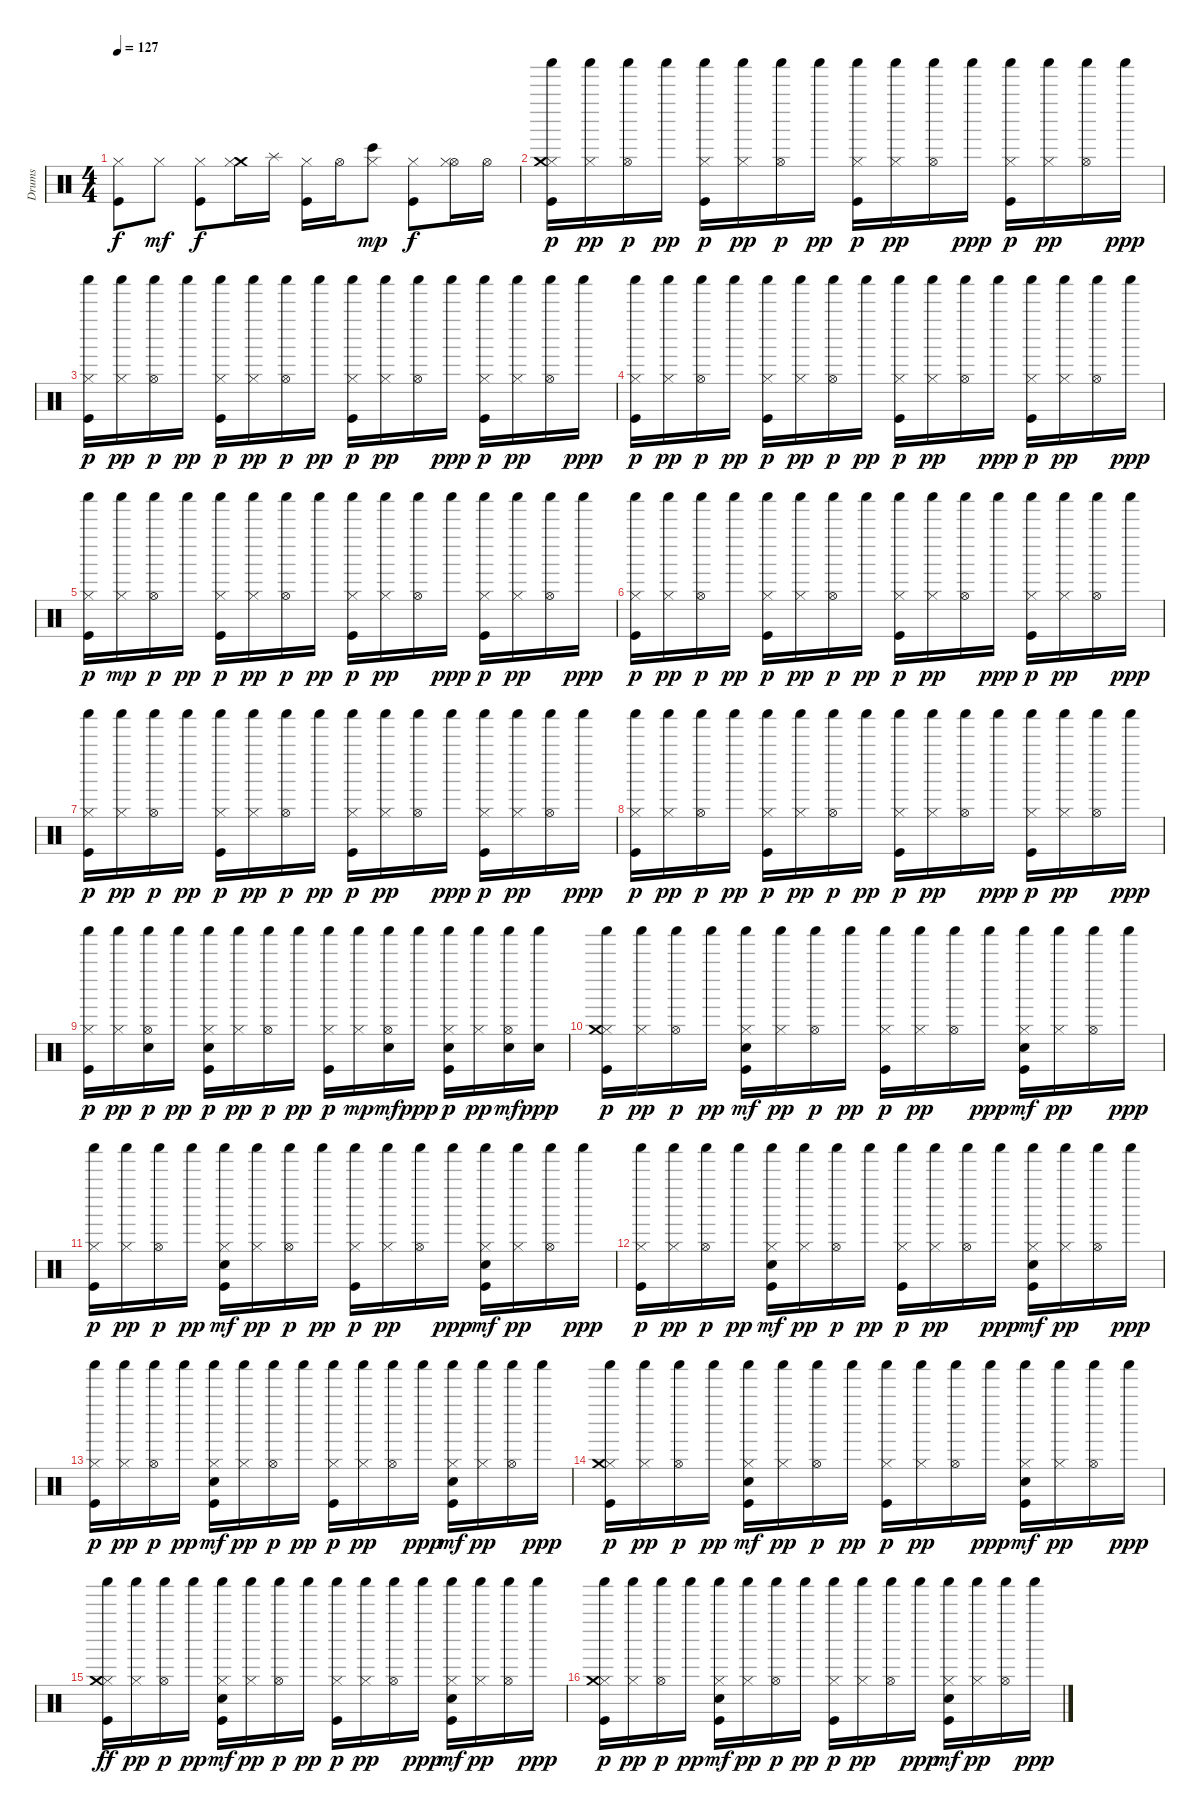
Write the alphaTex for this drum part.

\track ("Drums" "Drums") {instrument percussion}
\staff {score}
\articulation defaults
\ts (4 4)
\tempo 127
\clef neutral
\ks c
("Kick (hit)" "Hi-Hat (closed)").8{dy f} "Hi-Hat (closed)".8{dy mf} ("Kick (hit)" "Hi-Hat (closed)").8{dy f} ("Crash medium (hit)" "Hi-Hat (closed)").16 "Splash (hit)".16 ("Hi-Hat (closed)" "Kick (hit)").16 "Hi-Hat (open)".16 ("Bongo High (hit)" "Hi-Hat (closed)").8{dy mp} ("Kick (hit)" "Hi-Hat (closed)").8{dy f} ("Hi-Hat (open)" "Hi-Hat (closed)").16 "Hi-Hat (open)".16 |
("Kick (hit)" "Hi-Hat (closed)" "Crash medium (hit)" "Shaker (hit)").16{dy p} ("Hi-Hat (closed)" "Shaker (hit)").16{dy pp} ("Hi-Hat (open)" "Shaker (hit)").16{dy p} "Shaker (hit)".16{dy pp} ("Kick (hit)" "Hi-Hat (closed)" "Shaker (hit)").16{dy p} ("Hi-Hat (closed)" "Shaker (hit)").16{dy pp} ("Hi-Hat (open)" "Shaker (hit)").16{dy p} "Shaker (hit)".16{dy pp} ("Kick (hit)" "Hi-Hat (closed)" "Shaker (hit)").16{dy p} ("Hi-Hat (closed)" "Shaker (hit)").16{dy pp} ("Hi-Hat (open)" "Shaker (hit)").16 "Shaker (hit)".16{dy ppp} ("Kick (hit)" "Hi-Hat (closed)" "Shaker (hit)").16{dy p} ("Hi-Hat (closed)" "Shaker (hit)").16{dy pp} ("Hi-Hat (open)" "Shaker (hit)").16 "Shaker (hit)".16{dy ppp} |
("Kick (hit)" "Hi-Hat (closed)" "Shaker (hit)").16{dy p} ("Hi-Hat (closed)" "Shaker (hit)").16{dy pp} ("Hi-Hat (open)" "Shaker (hit)").16{dy p} "Shaker (hit)".16{dy pp} ("Kick (hit)" "Hi-Hat (closed)" "Shaker (hit)").16{dy p} ("Hi-Hat (closed)" "Shaker (hit)").16{dy pp} ("Hi-Hat (open)" "Shaker (hit)").16{dy p} "Shaker (hit)".16{dy pp} ("Kick (hit)" "Hi-Hat (closed)" "Shaker (hit)").16{dy p} ("Hi-Hat (closed)" "Shaker (hit)").16{dy pp} ("Hi-Hat (open)" "Shaker (hit)").16 "Shaker (hit)".16{dy ppp} ("Kick (hit)" "Hi-Hat (closed)" "Shaker (hit)").16{dy p} ("Hi-Hat (closed)" "Shaker (hit)").16{dy pp} ("Hi-Hat (open)" "Shaker (hit)").16 "Shaker (hit)".16{dy ppp} |
("Kick (hit)" "Hi-Hat (closed)" "Shaker (hit)").16{dy p} ("Hi-Hat (closed)" "Shaker (hit)").16{dy pp} ("Hi-Hat (open)" "Shaker (hit)").16{dy p} "Shaker (hit)".16{dy pp} ("Kick (hit)" "Hi-Hat (closed)" "Shaker (hit)").16{dy p} ("Hi-Hat (closed)" "Shaker (hit)").16{dy pp} ("Hi-Hat (open)" "Shaker (hit)").16{dy p} "Shaker (hit)".16{dy pp} ("Kick (hit)" "Hi-Hat (closed)" "Shaker (hit)").16{dy p} ("Hi-Hat (closed)" "Shaker (hit)").16{dy pp} ("Hi-Hat (open)" "Shaker (hit)").16 "Shaker (hit)".16{dy ppp} ("Kick (hit)" "Hi-Hat (closed)" "Shaker (hit)").16{dy p} ("Hi-Hat (closed)" "Shaker (hit)").16{dy pp} ("Hi-Hat (open)" "Shaker (hit)").16 "Shaker (hit)".16{dy ppp} |
("Kick (hit)" "Hi-Hat (closed)" "Shaker (hit)").16{dy p} ("Shaker (hit)" "Hi-Hat (closed)").16{dy mp} ("Hi-Hat (open)" "Shaker (hit)").16{dy p} "Shaker (hit)".16{dy pp} ("Kick (hit)" "Hi-Hat (closed)" "Shaker (hit)").16{dy p} ("Hi-Hat (closed)" "Shaker (hit)").16{dy pp} ("Hi-Hat (open)" "Shaker (hit)").16{dy p} "Shaker (hit)".16{dy pp} ("Kick (hit)" "Hi-Hat (closed)" "Shaker (hit)").16{dy p} ("Hi-Hat (closed)" "Shaker (hit)").16{dy pp} ("Hi-Hat (open)" "Shaker (hit)").16 "Shaker (hit)".16{dy ppp} ("Kick (hit)" "Hi-Hat (closed)" "Shaker (hit)").16{dy p} ("Hi-Hat (closed)" "Shaker (hit)").16{dy pp} ("Hi-Hat (open)" "Shaker (hit)").16 "Shaker (hit)".16{dy ppp} |
("Kick (hit)" "Hi-Hat (closed)" "Shaker (hit)").16{dy p} ("Hi-Hat (closed)" "Shaker (hit)").16{dy pp} ("Hi-Hat (open)" "Shaker (hit)").16{dy p} "Shaker (hit)".16{dy pp} ("Kick (hit)" "Hi-Hat (closed)" "Shaker (hit)").16{dy p} ("Hi-Hat (closed)" "Shaker (hit)").16{dy pp} ("Hi-Hat (open)" "Shaker (hit)").16{dy p} "Shaker (hit)".16{dy pp} ("Kick (hit)" "Hi-Hat (closed)" "Shaker (hit)").16{dy p} ("Hi-Hat (closed)" "Shaker (hit)").16{dy pp} ("Hi-Hat (open)" "Shaker (hit)").16 "Shaker (hit)".16{dy ppp} ("Kick (hit)" "Hi-Hat (closed)" "Shaker (hit)").16{dy p} ("Hi-Hat (closed)" "Shaker (hit)").16{dy pp} ("Hi-Hat (open)" "Shaker (hit)").16 "Shaker (hit)".16{dy ppp} |
("Kick (hit)" "Hi-Hat (closed)" "Shaker (hit)").16{dy p} ("Hi-Hat (closed)" "Shaker (hit)").16{dy pp} ("Hi-Hat (open)" "Shaker (hit)").16{dy p} "Shaker (hit)".16{dy pp} ("Kick (hit)" "Hi-Hat (closed)" "Shaker (hit)").16{dy p} ("Hi-Hat (closed)" "Shaker (hit)").16{dy pp} ("Hi-Hat (open)" "Shaker (hit)").16{dy p} "Shaker (hit)".16{dy pp} ("Kick (hit)" "Hi-Hat (closed)" "Shaker (hit)").16{dy p} ("Hi-Hat (closed)" "Shaker (hit)").16{dy pp} ("Hi-Hat (open)" "Shaker (hit)").16 "Shaker (hit)".16{dy ppp} ("Kick (hit)" "Hi-Hat (closed)" "Shaker (hit)").16{dy p} ("Hi-Hat (closed)" "Shaker (hit)").16{dy pp} ("Hi-Hat (open)" "Shaker (hit)").16 "Shaker (hit)".16{dy ppp} |
("Kick (hit)" "Hi-Hat (closed)" "Shaker (hit)").16{dy p} ("Hi-Hat (closed)" "Shaker (hit)").16{dy pp} ("Hi-Hat (open)" "Shaker (hit)").16{dy p} "Shaker (hit)".16{dy pp} ("Kick (hit)" "Hi-Hat (closed)" "Shaker (hit)").16{dy p} ("Hi-Hat (closed)" "Shaker (hit)").16{dy pp} ("Hi-Hat (open)" "Shaker (hit)").16{dy p} "Shaker (hit)".16{dy pp} ("Kick (hit)" "Hi-Hat (closed)" "Shaker (hit)").16{dy p} ("Hi-Hat (closed)" "Shaker (hit)").16{dy pp} ("Hi-Hat (open)" "Shaker (hit)").16 "Shaker (hit)".16{dy ppp} ("Kick (hit)" "Hi-Hat (closed)" "Shaker (hit)").16{dy p} ("Hi-Hat (closed)" "Shaker (hit)").16{dy pp} ("Hi-Hat (open)" "Shaker (hit)").16 "Shaker (hit)".16{dy ppp} |
("Kick (hit)" "Hi-Hat (closed)" "Shaker (hit)").16{dy p} ("Hi-Hat (closed)" "Shaker (hit)").16{dy pp} ("Hi-Hat (open)" "Hand Clap (hit)" "Shaker (hit)").16{dy p} "Shaker (hit)".16{dy pp} ("Shaker (hit)" "Kick (hit)" "Hi-Hat (closed)" "Hand Clap (hit)").16{dy p} ("Hi-Hat (closed)" "Shaker (hit)").16{dy pp} ("Hi-Hat (open)" "Shaker (hit)").16{dy p} "Shaker (hit)".16{dy pp} ("Shaker (hit)" "Kick (hit)" "Hi-Hat (closed)").16{dy p} ("Shaker (hit)" "Hi-Hat (closed)").16{dy mp} ("Shaker (hit)" "Hand Clap (hit)" "Hi-Hat (open)").16{dy mf} "Shaker (hit)".16{dy ppp} ("Shaker (hit)" "Hand Clap (hit)" "Kick (hit)" "Hi-Hat (closed)").16{dy p} ("Hi-Hat (closed)" "Shaker (hit)").16{dy pp} ("Shaker (hit)" "Hand Clap (hit)" "Hi-Hat (open)").16{dy mf} ("Hand Clap (hit)" "Shaker (hit)").16{dy ppp} |
("Kick (hit)" "Hi-Hat (closed)" "Crash medium (hit)" "Shaker (hit)").16{dy p} ("Hi-Hat (closed)" "Shaker (hit)").16{dy pp} ("Hi-Hat (open)" "Shaker (hit)").16{dy p} "Shaker (hit)".16{dy pp} ("Hi-Hat (closed)" "Shaker (hit)" "Hand Clap (hit)" "Kick (hit)").16{dy mf} ("Hi-Hat (closed)" "Shaker (hit)").16{dy pp} ("Hi-Hat (open)" "Shaker (hit)").16{dy p} "Shaker (hit)".16{dy pp} ("Kick (hit)" "Hi-Hat (closed)" "Shaker (hit)").16{dy p} ("Hi-Hat (closed)" "Shaker (hit)").16{dy pp} ("Hi-Hat (open)" "Shaker (hit)").16 "Shaker (hit)".16{dy ppp} ("Hi-Hat (closed)" "Shaker (hit)" "Hand Clap (hit)" "Kick (hit)").16{dy mf} ("Hi-Hat (closed)" "Shaker (hit)").16{dy pp} ("Hi-Hat (open)" "Shaker (hit)").16 "Shaker (hit)".16{dy ppp} |
("Kick (hit)" "Hi-Hat (closed)" "Shaker (hit)").16{dy p} ("Hi-Hat (closed)" "Shaker (hit)").16{dy pp} ("Hi-Hat (open)" "Shaker (hit)").16{dy p} "Shaker (hit)".16{dy pp} ("Hi-Hat (closed)" "Shaker (hit)" "Hand Clap (hit)" "Kick (hit)").16{dy mf} ("Hi-Hat (closed)" "Shaker (hit)").16{dy pp} ("Hi-Hat (open)" "Shaker (hit)").16{dy p} "Shaker (hit)".16{dy pp} ("Kick (hit)" "Hi-Hat (closed)" "Shaker (hit)").16{dy p} ("Hi-Hat (closed)" "Shaker (hit)").16{dy pp} ("Hi-Hat (open)" "Shaker (hit)").16 "Shaker (hit)".16{dy ppp} ("Hi-Hat (closed)" "Shaker (hit)" "Hand Clap (hit)" "Kick (hit)").16{dy mf} ("Hi-Hat (closed)" "Shaker (hit)").16{dy pp} ("Hi-Hat (open)" "Shaker (hit)").16 "Shaker (hit)".16{dy ppp} |
("Kick (hit)" "Hi-Hat (closed)" "Shaker (hit)").16{dy p} ("Hi-Hat (closed)" "Shaker (hit)").16{dy pp} ("Hi-Hat (open)" "Shaker (hit)").16{dy p} "Shaker (hit)".16{dy pp} ("Hi-Hat (closed)" "Shaker (hit)" "Hand Clap (hit)" "Kick (hit)").16{dy mf} ("Hi-Hat (closed)" "Shaker (hit)").16{dy pp} ("Hi-Hat (open)" "Shaker (hit)").16{dy p} "Shaker (hit)".16{dy pp} ("Kick (hit)" "Hi-Hat (closed)" "Shaker (hit)").16{dy p} ("Hi-Hat (closed)" "Shaker (hit)").16{dy pp} ("Hi-Hat (open)" "Shaker (hit)").16 "Shaker (hit)".16{dy ppp} ("Hi-Hat (closed)" "Shaker (hit)" "Hand Clap (hit)" "Kick (hit)").16{dy mf} ("Hi-Hat (closed)" "Shaker (hit)").16{dy pp} ("Hi-Hat (open)" "Shaker (hit)").16 "Shaker (hit)".16{dy ppp} |
("Kick (hit)" "Hi-Hat (closed)" "Shaker (hit)").16{dy p} ("Hi-Hat (closed)" "Shaker (hit)").16{dy pp} ("Hi-Hat (open)" "Shaker (hit)").16{dy p} "Shaker (hit)".16{dy pp} ("Hi-Hat (closed)" "Shaker (hit)" "Hand Clap (hit)" "Kick (hit)").16{dy mf} ("Hi-Hat (closed)" "Shaker (hit)").16{dy pp} ("Hi-Hat (open)" "Shaker (hit)").16{dy p} "Shaker (hit)".16{dy pp} ("Kick (hit)" "Hi-Hat (closed)" "Shaker (hit)").16{dy p} ("Hi-Hat (closed)" "Shaker (hit)").16{dy pp} ("Hi-Hat (open)" "Shaker (hit)").16 "Shaker (hit)".16{dy ppp} ("Hi-Hat (closed)" "Shaker (hit)" "Hand Clap (hit)" "Kick (hit)").16{dy mf} ("Hi-Hat (closed)" "Shaker (hit)").16{dy pp} ("Hi-Hat (open)" "Shaker (hit)").16 "Shaker (hit)".16{dy ppp} |
("Kick (hit)" "Hi-Hat (closed)" "Crash medium (hit)" "Shaker (hit)").16{dy p} ("Hi-Hat (closed)" "Shaker (hit)").16{dy pp} ("Hi-Hat (open)" "Shaker (hit)").16{dy p} "Shaker (hit)".16{dy pp} ("Hi-Hat (closed)" "Shaker (hit)" "Hand Clap (hit)" "Kick (hit)").16{dy mf} ("Hi-Hat (closed)" "Shaker (hit)").16{dy pp} ("Hi-Hat (open)" "Shaker (hit)").16{dy p} "Shaker (hit)".16{dy pp} ("Kick (hit)" "Hi-Hat (closed)" "Shaker (hit)").16{dy p} ("Hi-Hat (closed)" "Shaker (hit)").16{dy pp} ("Hi-Hat (open)" "Shaker (hit)").16 "Shaker (hit)".16{dy ppp} ("Hi-Hat (closed)" "Shaker (hit)" "Hand Clap (hit)" "Kick (hit)").16{dy mf} ("Hi-Hat (closed)" "Shaker (hit)").16{dy pp} ("Hi-Hat (open)" "Shaker (hit)").16 "Shaker (hit)".16{dy ppp} |
("Hi-Hat (closed)" "Shaker (hit)" "Crash medium (hit)" "Kick (hit)").16{dy ff} ("Hi-Hat (closed)" "Shaker (hit)").16{dy pp} ("Hi-Hat (open)" "Shaker (hit)").16{dy p} "Shaker (hit)".16{dy pp} ("Hi-Hat (closed)" "Shaker (hit)" "Hand Clap (hit)" "Kick (hit)").16{dy mf} ("Hi-Hat (closed)" "Shaker (hit)").16{dy pp} ("Hi-Hat (open)" "Shaker (hit)").16{dy p} "Shaker (hit)".16{dy pp} ("Kick (hit)" "Hi-Hat (closed)" "Shaker (hit)").16{dy p} ("Hi-Hat (closed)" "Shaker (hit)").16{dy pp} ("Hi-Hat (open)" "Shaker (hit)").16 "Shaker (hit)".16{dy ppp} ("Hi-Hat (closed)" "Shaker (hit)" "Hand Clap (hit)" "Kick (hit)").16{dy mf} ("Hi-Hat (closed)" "Shaker (hit)").16{dy pp} ("Hi-Hat (open)" "Shaker (hit)").16 "Shaker (hit)".16{dy ppp} |
("Kick (hit)" "Hi-Hat (closed)" "Crash medium (hit)" "Shaker (hit)").16{dy p} ("Hi-Hat (closed)" "Shaker (hit)").16{dy pp} ("Hi-Hat (open)" "Shaker (hit)").16{dy p} "Shaker (hit)".16{dy pp} ("Hi-Hat (closed)" "Shaker (hit)" "Hand Clap (hit)" "Kick (hit)").16{dy mf} ("Hi-Hat (closed)" "Shaker (hit)").16{dy pp} ("Hi-Hat (open)" "Shaker (hit)").16{dy p} "Shaker (hit)".16{dy pp} ("Kick (hit)" "Hi-Hat (closed)" "Shaker (hit)").16{dy p} ("Hi-Hat (closed)" "Shaker (hit)").16{dy pp} ("Hi-Hat (open)" "Shaker (hit)").16 "Shaker (hit)".16{dy ppp} ("Hi-Hat (closed)" "Shaker (hit)" "Hand Clap (hit)" "Kick (hit)").16{dy mf} ("Hi-Hat (closed)" "Shaker (hit)").16{dy pp} ("Hi-Hat (open)" "Shaker (hit)").16 "Shaker (hit)".16{dy ppp}
